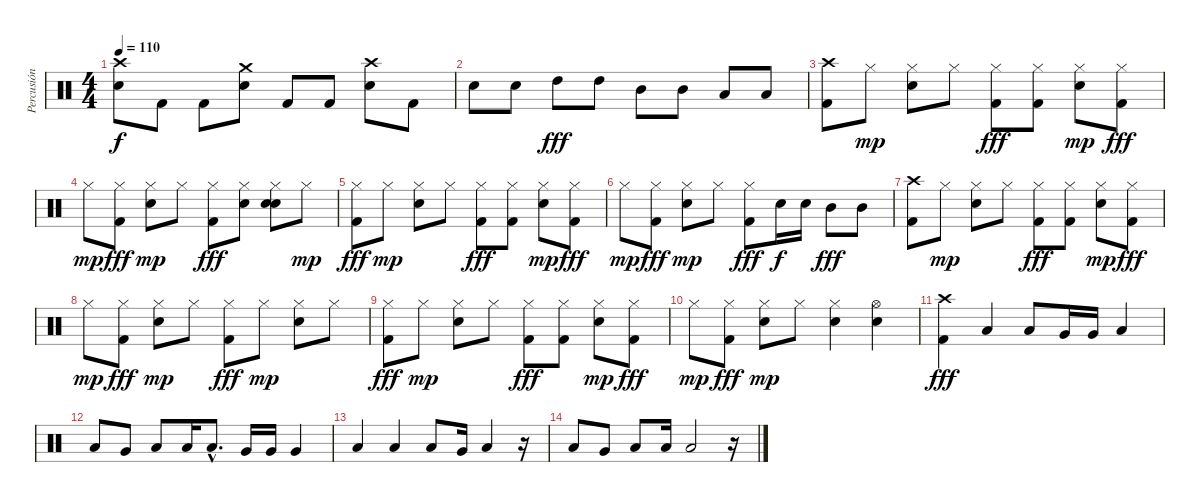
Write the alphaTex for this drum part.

\track ("Percusión" "Percusión") {instrument percussion}
\staff {score}
\articulation defaults
\ts (4 4)
\tempo 110
\clef neutral
\ks c
("Crash high (hit)" "Snare (hit) 2").8{dy f} "Kick (hit) 2".8 "Kick (hit) 2".8 ("Crash medium (hit)" "Snare (hit) 2").8 "Kick (hit) 2".8 "Kick (hit) 2".8 ("Crash high (hit)" "Snare (hit) 2").8 "Kick (hit) 2".8 |
"Snare (hit) 2".8 "Snare (hit) 2".8 "High Tom (hit)".8{dy fff} "High Tom (hit)".8 "Mid Tom (hit)".8 "Mid Tom (hit)".8 "Low Tom (hit)".8 "Low Tom (hit)".8 |
("Crash high (hit)" "Kick (hit) 2").8 "Hi-Hat (closed)".8{dy mp} ("Hi-Hat (closed)" "Snare (hit) 2").8 "Hi-Hat (closed)".8 ("Hi-Hat (closed)" "Kick (hit) 2").8{dy fff} ("Hi-Hat (closed)" "Kick (hit) 2").8 ("Hi-Hat (closed)" "Snare (hit) 2").8{dy mp} ("Hi-Hat (closed)" "Kick (hit) 2").8{dy fff} |
"Hi-Hat (closed)".8{dy mp} ("Hi-Hat (closed)" "Kick (hit) 2").8{dy fff} ("Hi-Hat (closed)" "Snare (hit) 2").8{dy mp} "Hi-Hat (closed)".8 ("Hi-Hat (closed)" "Kick (hit) 2").8{dy fff} ("Hi-Hat (closed)" "Hand Clap (hit)").8 ("Hi-Hat (closed)" "Snare (hit) 2" "Hand Clap (hit)").8 "Hi-Hat (closed)".8{dy mp} |
("Hi-Hat (closed)" "Kick (hit) 2").8{dy fff} "Hi-Hat (closed)".8{dy mp} ("Hi-Hat (closed)" "Snare (hit) 2").8 "Hi-Hat (closed)".8 ("Hi-Hat (closed)" "Kick (hit) 2").8{dy fff} ("Hi-Hat (closed)" "Kick (hit) 2").8 ("Hi-Hat (closed)" "Snare (hit) 2").8{dy mp} ("Hi-Hat (closed)" "Kick (hit) 2").8{dy fff} |
"Hi-Hat (closed)".8{dy mp} ("Hi-Hat (closed)" "Kick (hit) 2").8{dy fff} ("Hi-Hat (closed)" "Snare (hit) 2").8{dy mp} "Hi-Hat (closed)".8 ("Hi-Hat (closed)" "Kick (hit) 2").8{dy fff} "Snare (hit) 2".16{dy f} "Snare (hit) 2".16 "Mid Tom (hit)".8{dy fff} "Mid Tom (hit)".8 |
("Crash high (hit)" "Kick (hit) 2").8 "Hi-Hat (closed)".8{dy mp} ("Hi-Hat (closed)" "Snare (hit) 2").8 "Hi-Hat (closed)".8 ("Hi-Hat (closed)" "Kick (hit) 2").8{dy fff} ("Hi-Hat (closed)" "Kick (hit) 2").8 ("Hi-Hat (closed)" "Snare (hit) 2").8{dy mp} ("Hi-Hat (closed)" "Kick (hit) 2").8{dy fff} |
"Hi-Hat (closed)".8{dy mp} ("Hi-Hat (closed)" "Kick (hit) 2").8{dy fff} ("Hi-Hat (closed)" "Snare (hit) 2").8{dy mp} "Hi-Hat (closed)".8 ("Hi-Hat (closed)" "Kick (hit) 2").8{dy fff} "Hi-Hat (closed)".8{dy mp} ("Hi-Hat (closed)" "Snare (hit) 2").8 "Hi-Hat (closed)".8 |
("Hi-Hat (closed)" "Kick (hit) 2").8{dy fff} "Hi-Hat (closed)".8{dy mp} ("Hi-Hat (closed)" "Snare (hit) 2").8 "Hi-Hat (closed)".8 ("Hi-Hat (closed)" "Kick (hit) 2").8{dy fff} ("Hi-Hat (closed)" "Kick (hit) 2").8 ("Hi-Hat (closed)" "Snare (hit) 2").8{dy mp} ("Hi-Hat (closed)" "Kick (hit) 2").8{dy fff} |
"Hi-Hat (closed)".8{dy mp} ("Hi-Hat (closed)" "Kick (hit) 2").8{dy fff} ("Hi-Hat (closed)" "Snare (hit) 2").8{dy mp} "Hi-Hat (closed)".8 ("Hi-Hat (closed)" "Snare (hit) 2").4 ("Hi-Hat (open)" "Snare (hit) 2").4 |
("Crash high (hit)" "Kick (hit) 2").4{dy fff} "Low Tom (hit)".4{volume 16} "Low Tom (hit)".8 "Very Low Tom (hit)".16 "Very Low Tom (hit)".16 "Low Tom (hit)".4 |
"Low Tom (hit)".8 "Very Low Tom (hit)".8 "Low Tom (hit)".8 "Low Tom (hit)".16 "Low Tom (hit)"{hac}.8{d} "Very Low Tom (hit)".16 "Very Low Tom (hit)".16 "Very Low Tom (hit)".4 |
"Low Floor Tom (hit)".4 "Low Tom (hit)".4 "Low Tom (hit)".8 "Very Low Tom (hit)".16 "Low Tom (hit)".4 r.16 |
"Low Tom (hit)".8 "Very Low Tom (hit)".8 "Low Tom (hit)".8 "Low Tom (hit)".16 "Low Tom (hit)".2 r.16
